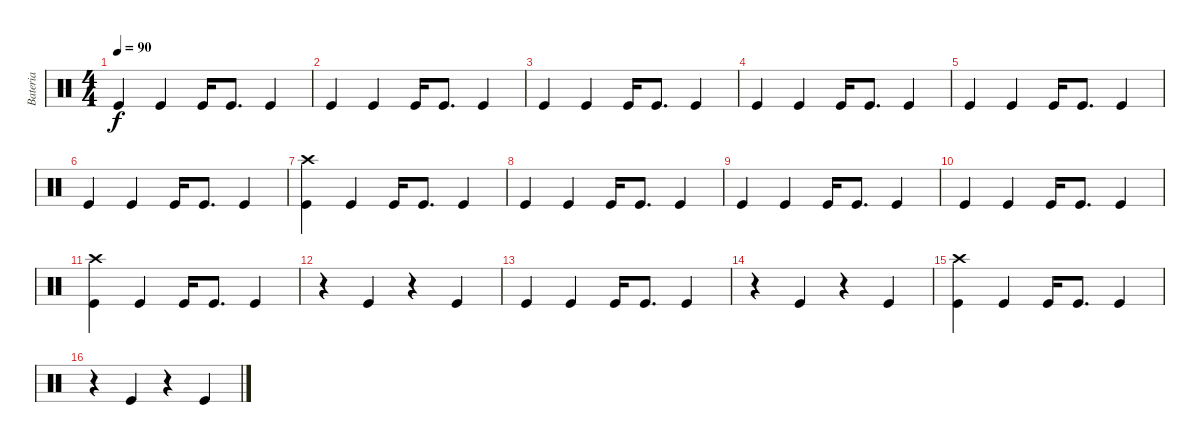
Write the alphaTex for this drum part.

\track ("Bateria" "Bateria") {instrument percussion}
\staff {score}
\articulation defaults
\ts (4 4)
\tempo 90
\clef neutral
\ks c "Kick (hit)".4{dy f} "Kick (hit)".4 "Kick (hit)".16 "Kick (hit)".8{d} "Kick (hit)".4
|
"Kick (hit)".4 "Kick (hit)".4 "Kick (hit)".16 "Kick (hit)".8{d} "Kick (hit)".4 |
"Kick (hit)".4 "Kick (hit)".4 "Kick (hit)".16 "Kick (hit)".8{d} "Kick (hit)".4 |
"Kick (hit)".4 "Kick (hit)".4 "Kick (hit)".16 "Kick (hit)".8{d} "Kick (hit)".4 |
"Kick (hit)".4 "Kick (hit)".4 "Kick (hit)".16 "Kick (hit)".8{d} "Kick (hit)".4 |
"Kick (hit)".4 "Kick (hit)".4 "Kick (hit)".16 "Kick (hit)".8{d} "Kick (hit)".4 |
("Kick (hit)" "Crash high (hit)").4 "Kick (hit)".4 "Kick (hit)".16 "Kick (hit)".8{d} "Kick (hit)".4 |
"Kick (hit)".4 "Kick (hit)".4 "Kick (hit)".16 "Kick (hit)".8{d} "Kick (hit)".4 |
"Kick (hit)".4 "Kick (hit)".4 "Kick (hit)".16 "Kick (hit)".8{d} "Kick (hit)".4 |
"Kick (hit)".4 "Kick (hit)".4 "Kick (hit)".16 "Kick (hit)".8{d} "Kick (hit)".4 |
("Kick (hit)" "Crash high (hit)").4 "Kick (hit)".4 "Kick (hit)".16 "Kick (hit)".8{d} "Kick (hit)".4 |
r.4 "Kick (hit)".4 r.4 "Kick (hit)".4 |
"Kick (hit)".4 "Kick (hit)".4 "Kick (hit)".16 "Kick (hit)".8{d} "Kick (hit)".4 |
r.4 "Kick (hit)".4 r.4 "Kick (hit)".4 |
("Kick (hit)" "Crash high (hit)").4 "Kick (hit)".4 "Kick (hit)".16 "Kick (hit)".8{d} "Kick (hit)".4 |
r.4 "Kick (hit)".4 r.4 "Kick (hit)".4
